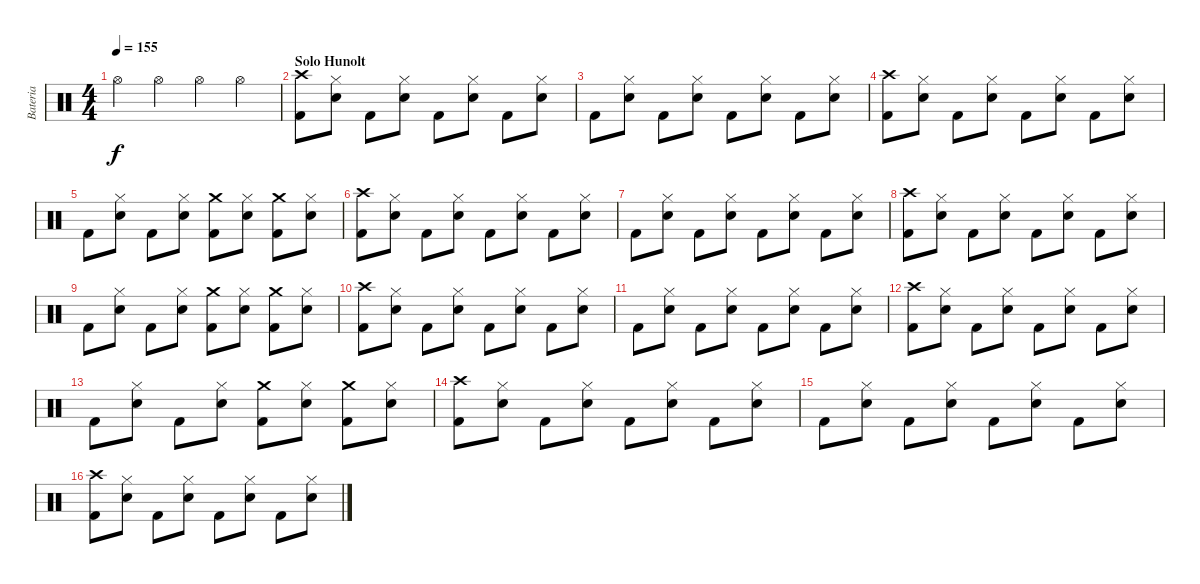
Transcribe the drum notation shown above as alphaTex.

\track ("Bateria" "Bateria") {instrument percussion}
\staff {score}
\articulation defaults
\ts (4 4)
\tempo 155
\clef neutral
\ks c "Hi-Hat (open)".4{dy f} "Hi-Hat (open)".4 "Hi-Hat (open)".4 "Hi-Hat (open)".4
|
\section ("" "Solo Hunolt")
("Kick (hit) 2" "Crash high (hit)").8 ("Electric Snare (hit)" "Hi-Hat (closed)").8 "Kick (hit) 2".8 ("Electric Snare (hit)" "Hi-Hat (closed)").8 "Kick (hit) 2".8 ("Electric Snare (hit)" "Hi-Hat (closed)").8 "Kick (hit) 2".8 ("Electric Snare (hit)" "Hi-Hat (closed)").8 |
"Kick (hit) 2".8 ("Electric Snare (hit)" "Hi-Hat (closed)").8 "Kick (hit) 2".8 ("Electric Snare (hit)" "Hi-Hat (closed)").8 "Kick (hit) 2".8 ("Electric Snare (hit)" "Hi-Hat (closed)").8 "Kick (hit) 2".8 ("Electric Snare (hit)" "Hi-Hat (closed)").8 |
("Kick (hit) 2" "Crash high (hit)").8 ("Electric Snare (hit)" "Hi-Hat (closed)").8 "Kick (hit) 2".8 ("Electric Snare (hit)" "Hi-Hat (closed)").8 "Kick (hit) 2".8 ("Electric Snare (hit)" "Hi-Hat (closed)").8 "Kick (hit) 2".8 ("Electric Snare (hit)" "Hi-Hat (closed)").8 |
"Kick (hit) 2".8 ("Electric Snare (hit)" "Hi-Hat (closed)").8 "Kick (hit) 2".8 ("Electric Snare (hit)" "Hi-Hat (closed)").8 ("Kick (hit) 2" "Crash medium (hit)").8 ("Electric Snare (hit)" "Hi-Hat (closed)").8 ("Kick (hit) 2" "Crash medium (hit)").8 ("Electric Snare (hit)" "Hi-Hat (closed)").8 |
("Kick (hit) 2" "Crash high (hit)").8 ("Electric Snare (hit)" "Hi-Hat (closed)").8 "Kick (hit) 2".8 ("Electric Snare (hit)" "Hi-Hat (closed)").8 "Kick (hit) 2".8 ("Electric Snare (hit)" "Hi-Hat (closed)").8 "Kick (hit) 2".8 ("Electric Snare (hit)" "Hi-Hat (closed)").8 |
"Kick (hit) 2".8 ("Electric Snare (hit)" "Hi-Hat (closed)").8 "Kick (hit) 2".8 ("Electric Snare (hit)" "Hi-Hat (closed)").8 "Kick (hit) 2".8 ("Electric Snare (hit)" "Hi-Hat (closed)").8 "Kick (hit) 2".8 ("Electric Snare (hit)" "Hi-Hat (closed)").8 |
("Kick (hit) 2" "Crash high (hit)").8 ("Electric Snare (hit)" "Hi-Hat (closed)").8 "Kick (hit) 2".8 ("Electric Snare (hit)" "Hi-Hat (closed)").8 "Kick (hit) 2".8 ("Electric Snare (hit)" "Hi-Hat (closed)").8 "Kick (hit) 2".8 ("Electric Snare (hit)" "Hi-Hat (closed)").8 |
"Kick (hit) 2".8 ("Electric Snare (hit)" "Hi-Hat (closed)").8 "Kick (hit) 2".8 ("Electric Snare (hit)" "Hi-Hat (closed)").8 ("Kick (hit) 2" "Crash medium (hit)").8 ("Electric Snare (hit)" "Hi-Hat (closed)").8 ("Kick (hit) 2" "Crash medium (hit)").8 ("Electric Snare (hit)" "Hi-Hat (closed)").8 |
("Kick (hit) 2" "Crash high (hit)").8 ("Electric Snare (hit)" "Hi-Hat (closed)").8 "Kick (hit) 2".8 ("Electric Snare (hit)" "Hi-Hat (closed)").8 "Kick (hit) 2".8 ("Electric Snare (hit)" "Hi-Hat (closed)").8 "Kick (hit) 2".8 ("Electric Snare (hit)" "Hi-Hat (closed)").8 |
"Kick (hit) 2".8 ("Electric Snare (hit)" "Hi-Hat (closed)").8 "Kick (hit) 2".8 ("Electric Snare (hit)" "Hi-Hat (closed)").8 "Kick (hit) 2".8 ("Electric Snare (hit)" "Hi-Hat (closed)").8 "Kick (hit) 2".8 ("Electric Snare (hit)" "Hi-Hat (closed)").8 |
("Kick (hit) 2" "Crash high (hit)").8 ("Electric Snare (hit)" "Hi-Hat (closed)").8 "Kick (hit) 2".8 ("Electric Snare (hit)" "Hi-Hat (closed)").8 "Kick (hit) 2".8 ("Electric Snare (hit)" "Hi-Hat (closed)").8 "Kick (hit) 2".8 ("Electric Snare (hit)" "Hi-Hat (closed)").8 |
"Kick (hit) 2".8 ("Electric Snare (hit)" "Hi-Hat (closed)").8 "Kick (hit) 2".8 ("Electric Snare (hit)" "Hi-Hat (closed)").8 ("Kick (hit) 2" "Crash medium (hit)").8 ("Electric Snare (hit)" "Hi-Hat (closed)").8 ("Kick (hit) 2" "Crash medium (hit)").8 ("Electric Snare (hit)" "Hi-Hat (closed)").8 |
("Kick (hit) 2" "Crash high (hit)").8 ("Electric Snare (hit)" "Hi-Hat (closed)").8 "Kick (hit) 2".8 ("Electric Snare (hit)" "Hi-Hat (closed)").8 "Kick (hit) 2".8 ("Electric Snare (hit)" "Hi-Hat (closed)").8 "Kick (hit) 2".8 ("Electric Snare (hit)" "Hi-Hat (closed)").8 |
"Kick (hit) 2".8 ("Electric Snare (hit)" "Hi-Hat (closed)").8 "Kick (hit) 2".8 ("Electric Snare (hit)" "Hi-Hat (closed)").8 "Kick (hit) 2".8 ("Electric Snare (hit)" "Hi-Hat (closed)").8 "Kick (hit) 2".8 ("Electric Snare (hit)" "Hi-Hat (closed)").8 |
("Kick (hit) 2" "Crash high (hit)").8 ("Electric Snare (hit)" "Hi-Hat (closed)").8 "Kick (hit) 2".8 ("Electric Snare (hit)" "Hi-Hat (closed)").8 "Kick (hit) 2".8 ("Electric Snare (hit)" "Hi-Hat (closed)").8 "Kick (hit) 2".8 ("Electric Snare (hit)" "Hi-Hat (closed)").8
